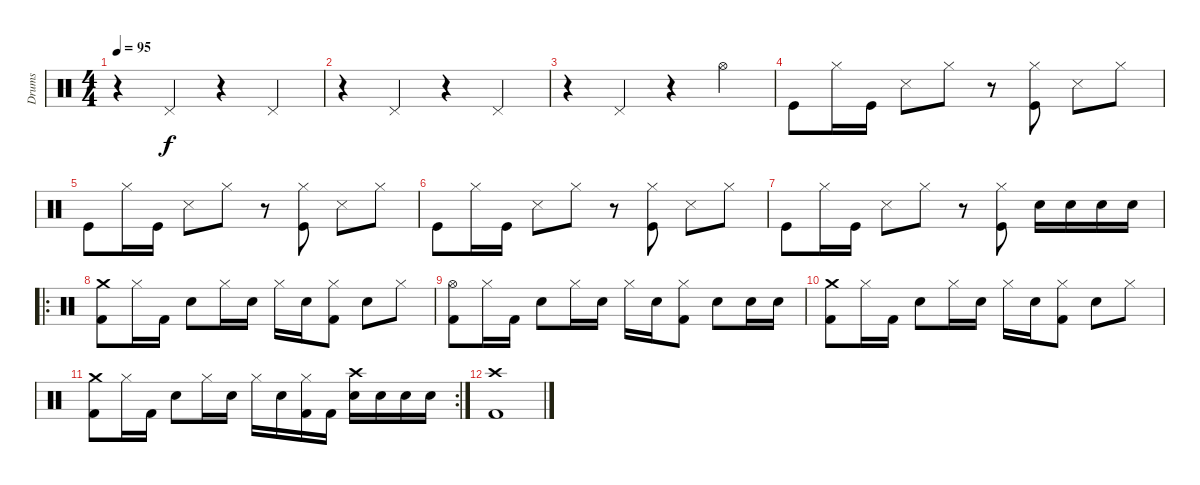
\track ("Drums" "Drums") {instrument percussion}
\staff {score}
\articulation defaults
\ts (4 4)
\tempo 95
\clef neutral
\ks c
r.4{dy f} "Pedal Hi-Hat (hit)".4 r.4 "Pedal Hi-Hat (hit)".4 |
r.4 "Pedal Hi-Hat (hit)".4 r.4 "Pedal Hi-Hat (hit)".4 |
r.4 "Pedal Hi-Hat (hit)".4 r.4 "Hi-Hat (open)".4 |
"Kick (hit)".8 "Hi-Hat (closed)".16 "Kick (hit)".16 "Snare (side stick) 3".8 "Hi-Hat (closed)".8 r.8 ("Hi-Hat (closed)" "Kick (hit)").8 "Snare (side stick) 3".8 "Hi-Hat (closed)".8 |
"Kick (hit)".8 "Hi-Hat (closed)".16 "Kick (hit)".16 "Snare (side stick) 3".8 "Hi-Hat (closed)".8 r.8 ("Hi-Hat (closed)" "Kick (hit)").8 "Snare (side stick) 3".8 "Hi-Hat (closed)".8 |
"Kick (hit)".8 "Hi-Hat (closed)".16 "Kick (hit)".16 "Snare (side stick) 3".8 "Hi-Hat (closed)".8 r.8 ("Hi-Hat (closed)" "Kick (hit)").8 "Snare (side stick) 3".8 "Hi-Hat (closed)".8 |
"Kick (hit)".8 "Hi-Hat (closed)".16 "Kick (hit)".16 "Snare (side stick) 3".8 "Hi-Hat (closed)".8 r.8 ("Hi-Hat (closed)" "Kick (hit)").8 "Snare (hit) 2".16 "Snare (hit) 2".16 "Snare (hit) 2".16 "Snare (hit) 2".16 |
\ro
("Crash medium (hit)" "Kick (hit) 2").8 "Hi-Hat (closed)".16 "Kick (hit) 2".16 "Snare (hit) 2".8 "Hi-Hat (closed)".16 "Snare (hit) 2".16 "Hi-Hat (closed)".16 "Snare (hit) 2".16 ("Hi-Hat (closed)" "Kick (hit) 2").8 "Snare (hit) 2".8 "Hi-Hat (closed)".8 |
("Hi-Hat (open)" "Kick (hit) 2").8 "Hi-Hat (closed)".16 "Kick (hit) 2".16 "Snare (hit) 2".8 "Hi-Hat (closed)".16 "Snare (hit) 2".16 "Hi-Hat (closed)".16 "Snare (hit) 2".16 ("Hi-Hat (closed)" "Kick (hit) 2").8 "Snare (hit) 2".8 "Snare (hit) 2".16 "Snare (hit) 2".16 |
("Crash medium (hit)" "Kick (hit) 2").8 "Hi-Hat (closed)".16 "Kick (hit) 2".16 "Snare (hit) 2".8 "Hi-Hat (closed)".16 "Snare (hit) 2".16 "Hi-Hat (closed)".16 "Snare (hit) 2".16 ("Hi-Hat (closed)" "Kick (hit) 2").8 "Snare (hit) 2".8 "Hi-Hat (closed)".8 |
\rc 2
("Crash medium (hit)" "Kick (hit) 2").8 "Hi-Hat (closed)".16 "Kick (hit) 2".16 "Snare (hit) 2".8 "Hi-Hat (closed)".16 "Snare (hit) 2".16 "Hi-Hat (closed)".16 "Snare (hit) 2".16 ("Hi-Hat (closed)" "Kick (hit) 2").16 "Kick (hit) 2".16 ("Crash high (hit)" "Snare (hit) 2").16 "Snare (hit) 2".16 "Snare (hit) 2".16 "Snare (hit) 2".16 |
("Crash high (hit)" "Kick (hit) 2").1
